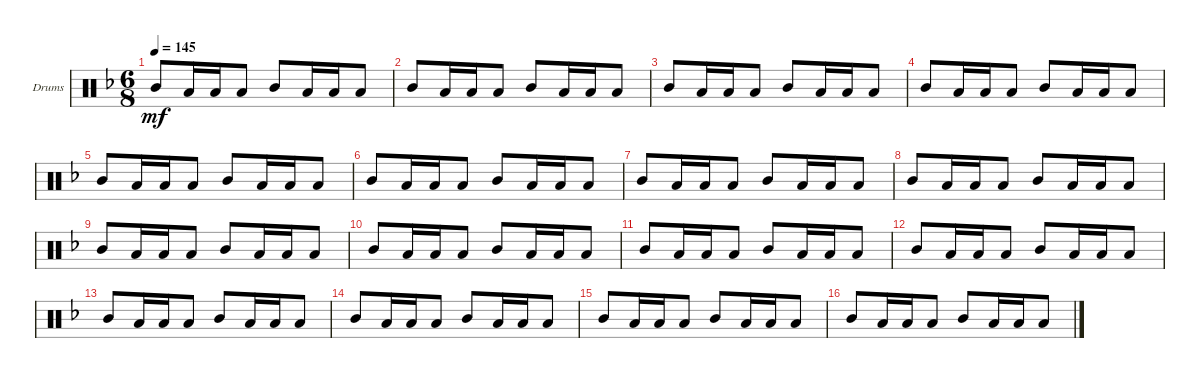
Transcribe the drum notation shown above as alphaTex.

\bracketExtendMode groupsimilarinstruments
\firstSystemTrackNameOrientation horizontal
\otherSystemsTrackNameOrientation horizontal
\track ("Drumkit" "Drums") {instrument percussion}
\staff {score}
\articulation defaults
\ts (6 8)
\tempo 145
\clef neutral
\ks f "Mid Tom (hit)".8{dy mf} "Low Tom (hit)".16 "Low Tom (hit)".16 "Low Tom (hit)".8 "Mid Tom (hit)".8 "Low Tom (hit)".16 "Low Tom (hit)".16 "Low Tom (hit)".8
|
"Mid Tom (hit)".8 "Low Tom (hit)".16 "Low Tom (hit)".16 "Low Tom (hit)".8 "Mid Tom (hit)".8 "Low Tom (hit)".16 "Low Tom (hit)".16 "Low Tom (hit)".8 |
"Mid Tom (hit)".8 "Low Tom (hit)".16 "Low Tom (hit)".16 "Low Tom (hit)".8 "Mid Tom (hit)".8 "Low Tom (hit)".16 "Low Tom (hit)".16 "Low Tom (hit)".8 |
"Mid Tom (hit)".8 "Low Tom (hit)".16 "Low Tom (hit)".16 "Low Tom (hit)".8 "Mid Tom (hit)".8 "Low Tom (hit)".16 "Low Tom (hit)".16 "Low Tom (hit)".8 |
"Mid Tom (hit)".8 "Low Tom (hit)".16 "Low Tom (hit)".16 "Low Tom (hit)".8 "Mid Tom (hit)".8 "Low Tom (hit)".16 "Low Tom (hit)".16 "Low Tom (hit)".8 |
"Mid Tom (hit)".8 "Low Tom (hit)".16 "Low Tom (hit)".16 "Low Tom (hit)".8 "Mid Tom (hit)".8 "Low Tom (hit)".16 "Low Tom (hit)".16 "Low Tom (hit)".8 |
"Mid Tom (hit)".8 "Low Tom (hit)".16 "Low Tom (hit)".16 "Low Tom (hit)".8 "Mid Tom (hit)".8 "Low Tom (hit)".16 "Low Tom (hit)".16 "Low Tom (hit)".8 |
"Mid Tom (hit)".8 "Low Tom (hit)".16 "Low Tom (hit)".16 "Low Tom (hit)".8 "Mid Tom (hit)".8 "Low Tom (hit)".16 "Low Tom (hit)".16 "Low Tom (hit)".8 |
"Mid Tom (hit)".8 "Low Tom (hit)".16 "Low Tom (hit)".16 "Low Tom (hit)".8 "Mid Tom (hit)".8 "Low Tom (hit)".16 "Low Tom (hit)".16 "Low Tom (hit)".8 |
"Mid Tom (hit)".8 "Low Tom (hit)".16 "Low Tom (hit)".16 "Low Tom (hit)".8 "Mid Tom (hit)".8 "Low Tom (hit)".16 "Low Tom (hit)".16 "Low Tom (hit)".8 |
"Mid Tom (hit)".8 "Low Tom (hit)".16 "Low Tom (hit)".16 "Low Tom (hit)".8 "Mid Tom (hit)".8 "Low Tom (hit)".16 "Low Tom (hit)".16 "Low Tom (hit)".8 |
"Mid Tom (hit)".8 "Low Tom (hit)".16 "Low Tom (hit)".16 "Low Tom (hit)".8 "Mid Tom (hit)".8 "Low Tom (hit)".16 "Low Tom (hit)".16 "Low Tom (hit)".8 |
"Mid Tom (hit)".8 "Low Tom (hit)".16 "Low Tom (hit)".16 "Low Tom (hit)".8 "Mid Tom (hit)".8 "Low Tom (hit)".16 "Low Tom (hit)".16 "Low Tom (hit)".8 |
"Mid Tom (hit)".8 "Low Tom (hit)".16 "Low Tom (hit)".16 "Low Tom (hit)".8 "Mid Tom (hit)".8 "Low Tom (hit)".16 "Low Tom (hit)".16 "Low Tom (hit)".8 |
"Mid Tom (hit)".8 "Low Tom (hit)".16 "Low Tom (hit)".16 "Low Tom (hit)".8 "Mid Tom (hit)".8 "Low Tom (hit)".16 "Low Tom (hit)".16 "Low Tom (hit)".8 |
"Mid Tom (hit)".8 "Low Tom (hit)".16 "Low Tom (hit)".16 "Low Tom (hit)".8 "Mid Tom (hit)".8 "Low Tom (hit)".16 "Low Tom (hit)".16 "Low Tom (hit)".8
